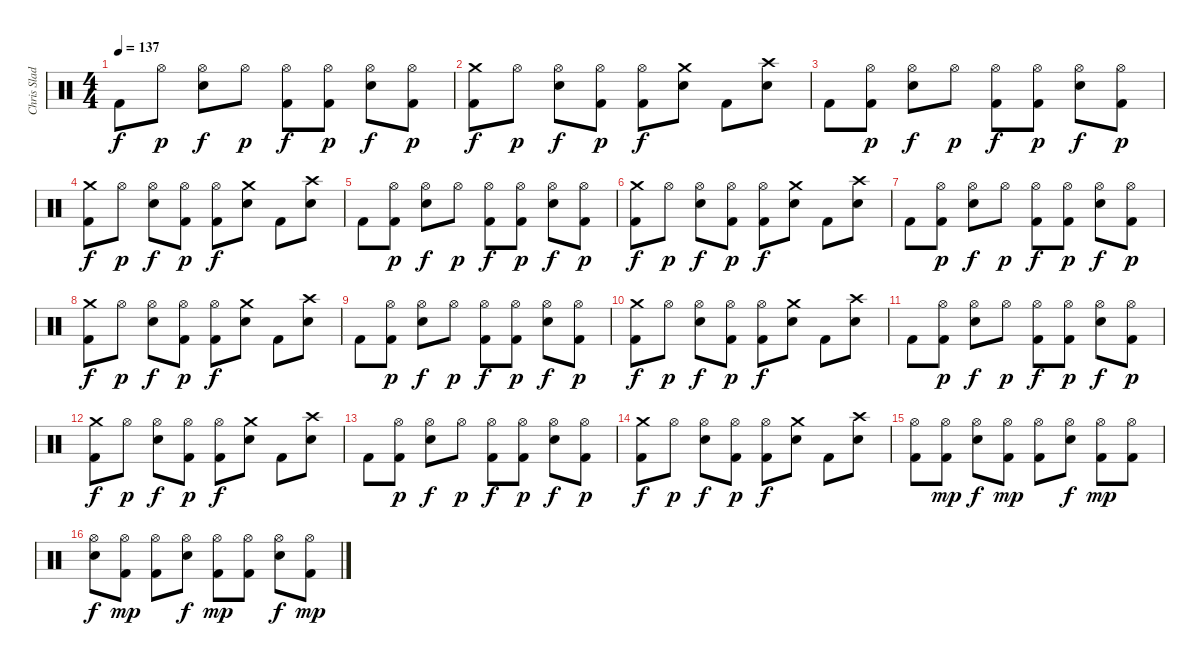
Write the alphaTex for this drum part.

\track ("Chris Slade / Drums" "Chris Slad") {instrument percussion}
\staff {score}
\articulation defaults
\ts (4 4)
\tempo 137
\clef neutral
\ks c "Kick (hit) 2".8{dy f} "Hi-Hat (open)".8{dy p}
("Hi-Hat (open)" "Electric Snare (hit)").8{dy f} "Hi-Hat (open)".8{dy p} ("Hi-Hat (open)" "Kick (hit) 2").8{dy f} ("Hi-Hat (open)" "Kick (hit) 2").8{dy p} ("Hi-Hat (open)" "Electric Snare (hit)").8{dy f} ("Hi-Hat (open)" "Kick (hit) 2").8{dy p} |
("Crash medium (hit)" "Kick (hit) 2").8{dy f} "Hi-Hat (open)".8{dy p} ("Hi-Hat (open)" "Electric Snare (hit)").8{dy f} ("Kick (hit) 2" "Hi-Hat (open)").8{dy p} ("Hi-Hat (open)" "Kick (hit) 2").8{dy f} ("Crash medium (hit)" "Electric Snare (hit)").8 "Kick (hit) 2".8 ("Crash high (hit)" "Electric Snare (hit)").8 |
"Kick (hit) 2".8 ("Kick (hit) 2" "Hi-Hat (open)").8{dy p} ("Hi-Hat (open)" "Electric Snare (hit)").8{dy f} "Hi-Hat (open)".8{dy p} ("Hi-Hat (open)" "Kick (hit) 2").8{dy f} ("Hi-Hat (open)" "Kick (hit) 2").8{dy p} ("Hi-Hat (open)" "Electric Snare (hit)").8{dy f} ("Hi-Hat (open)" "Kick (hit) 2").8{dy p} |
("Crash medium (hit)" "Kick (hit) 2").8{dy f} "Hi-Hat (open)".8{dy p} ("Hi-Hat (open)" "Electric Snare (hit)").8{dy f} ("Kick (hit) 2" "Hi-Hat (open)").8{dy p} ("Hi-Hat (open)" "Kick (hit) 2").8{dy f} ("Crash medium (hit)" "Electric Snare (hit)").8 "Kick (hit) 2".8 ("Crash high (hit)" "Electric Snare (hit)").8 |
"Kick (hit) 2".8 ("Kick (hit) 2" "Hi-Hat (open)").8{dy p} ("Hi-Hat (open)" "Electric Snare (hit)").8{dy f} "Hi-Hat (open)".8{dy p} ("Hi-Hat (open)" "Kick (hit) 2").8{dy f} ("Hi-Hat (open)" "Kick (hit) 2").8{dy p} ("Hi-Hat (open)" "Electric Snare (hit)").8{dy f} ("Hi-Hat (open)" "Kick (hit) 2").8{dy p} |
("Crash medium (hit)" "Kick (hit) 2").8{dy f} "Hi-Hat (open)".8{dy p} ("Hi-Hat (open)" "Electric Snare (hit)").8{dy f} ("Kick (hit) 2" "Hi-Hat (open)").8{dy p} ("Hi-Hat (open)" "Kick (hit) 2").8{dy f} ("Crash medium (hit)" "Electric Snare (hit)").8 "Kick (hit) 2".8 ("Crash high (hit)" "Electric Snare (hit)").8 |
"Kick (hit) 2".8 ("Kick (hit) 2" "Hi-Hat (open)").8{dy p} ("Hi-Hat (open)" "Electric Snare (hit)").8{dy f} "Hi-Hat (open)".8{dy p} ("Hi-Hat (open)" "Kick (hit) 2").8{dy f} ("Hi-Hat (open)" "Kick (hit) 2").8{dy p} ("Hi-Hat (open)" "Electric Snare (hit)").8{dy f} ("Hi-Hat (open)" "Kick (hit) 2").8{dy p} |
("Crash medium (hit)" "Kick (hit) 2").8{dy f} "Hi-Hat (open)".8{dy p} ("Hi-Hat (open)" "Electric Snare (hit)").8{dy f} ("Kick (hit) 2" "Hi-Hat (open)").8{dy p} ("Hi-Hat (open)" "Kick (hit) 2").8{dy f} ("Crash medium (hit)" "Electric Snare (hit)").8 "Kick (hit) 2".8 ("Crash high (hit)" "Electric Snare (hit)").8 |
"Kick (hit) 2".8 ("Kick (hit) 2" "Hi-Hat (open)").8{dy p} ("Hi-Hat (open)" "Electric Snare (hit)").8{dy f} "Hi-Hat (open)".8{dy p} ("Hi-Hat (open)" "Kick (hit) 2").8{dy f} ("Hi-Hat (open)" "Kick (hit) 2").8{dy p} ("Hi-Hat (open)" "Electric Snare (hit)").8{dy f} ("Hi-Hat (open)" "Kick (hit) 2").8{dy p} |
("Crash medium (hit)" "Kick (hit) 2").8{dy f} "Hi-Hat (open)".8{dy p} ("Hi-Hat (open)" "Electric Snare (hit)").8{dy f} ("Kick (hit) 2" "Hi-Hat (open)").8{dy p} ("Hi-Hat (open)" "Kick (hit) 2").8{dy f} ("Crash medium (hit)" "Electric Snare (hit)").8 "Kick (hit) 2".8 ("Crash high (hit)" "Electric Snare (hit)").8 |
"Kick (hit) 2".8 ("Kick (hit) 2" "Hi-Hat (open)").8{dy p} ("Hi-Hat (open)" "Electric Snare (hit)").8{dy f} "Hi-Hat (open)".8{dy p} ("Hi-Hat (open)" "Kick (hit) 2").8{dy f} ("Hi-Hat (open)" "Kick (hit) 2").8{dy p} ("Hi-Hat (open)" "Electric Snare (hit)").8{dy f} ("Hi-Hat (open)" "Kick (hit) 2").8{dy p} |
("Crash medium (hit)" "Kick (hit) 2").8{dy f} "Hi-Hat (open)".8{dy p} ("Hi-Hat (open)" "Electric Snare (hit)").8{dy f} ("Kick (hit) 2" "Hi-Hat (open)").8{dy p} ("Hi-Hat (open)" "Kick (hit) 2").8{dy f} ("Crash medium (hit)" "Electric Snare (hit)").8 "Kick (hit) 2".8 ("Crash high (hit)" "Electric Snare (hit)").8 |
"Kick (hit) 2".8 ("Kick (hit) 2" "Hi-Hat (open)").8{dy p} ("Hi-Hat (open)" "Electric Snare (hit)").8{dy f} "Hi-Hat (open)".8{dy p} ("Hi-Hat (open)" "Kick (hit) 2").8{dy f} ("Hi-Hat (open)" "Kick (hit) 2").8{dy p} ("Hi-Hat (open)" "Electric Snare (hit)").8{dy f} ("Hi-Hat (open)" "Kick (hit) 2").8{dy p} |
("Crash medium (hit)" "Kick (hit) 2").8{dy f} "Hi-Hat (open)".8{dy p} ("Hi-Hat (open)" "Electric Snare (hit)").8{dy f} ("Kick (hit) 2" "Hi-Hat (open)").8{dy p} ("Hi-Hat (open)" "Kick (hit) 2").8{dy f} ("Crash medium (hit)" "Electric Snare (hit)").8 "Kick (hit) 2".8 ("Crash high (hit)" "Electric Snare (hit)").8 |
("Hi-Hat (open)" "Kick (hit) 2").8 ("Hi-Hat (open)" "Kick (hit) 2").8{dy mp} ("Hi-Hat (open)" "Electric Snare (hit)").8{dy f} ("Hi-Hat (open)" "Kick (hit) 2").8{dy mp} ("Hi-Hat (open)" "Kick (hit) 2").8 ("Hi-Hat (open)" "Electric Snare (hit)").8{dy f} ("Hi-Hat (open)" "Kick (hit) 2").8{dy mp} ("Hi-Hat (open)" "Kick (hit) 2").8 |
("Hi-Hat (open)" "Electric Snare (hit)").8{dy f} ("Hi-Hat (open)" "Kick (hit) 2").8{dy mp} ("Hi-Hat (open)" "Kick (hit) 2").8 ("Hi-Hat (open)" "Electric Snare (hit)").8{dy f} ("Hi-Hat (open)" "Kick (hit) 2").8{dy mp} ("Hi-Hat (open)" "Kick (hit) 2").8 ("Hi-Hat (open)" "Electric Snare (hit)").8{dy f} ("Hi-Hat (open)" "Kick (hit) 2").8{dy mp}
